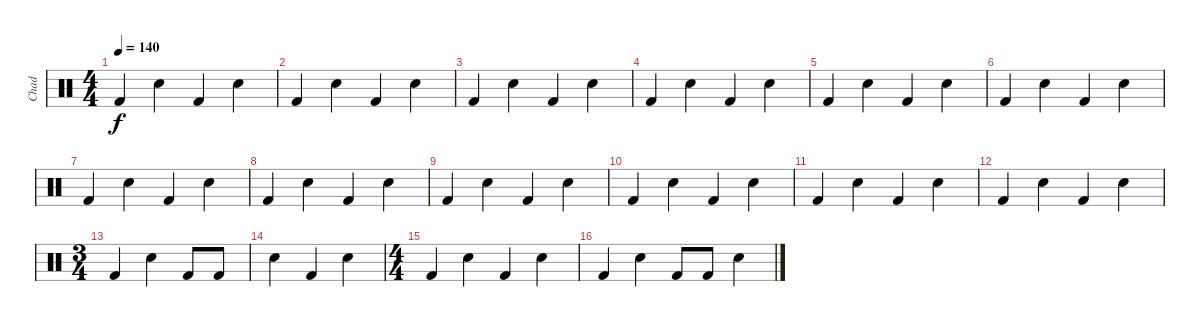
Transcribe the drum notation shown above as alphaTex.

\track ("Chad" "Chad") {instrument percussion}
\staff {score}
\articulation defaults
\ts (4 4)
\tempo 140
\clef neutral
\ks c "Kick (hit) 2".4{dy f} "Electric Snare (hit)".4 "Kick (hit) 2".4 "Electric Snare (hit)".4
|
"Kick (hit) 2".4 "Electric Snare (hit)".4 "Kick (hit) 2".4 "Electric Snare (hit)".4 |
"Kick (hit) 2".4 "Electric Snare (hit)".4 "Kick (hit) 2".4 "Electric Snare (hit)".4 |
"Kick (hit) 2".4 "Electric Snare (hit)".4 "Kick (hit) 2".4 "Electric Snare (hit)".4 |
"Kick (hit) 2".4 "Electric Snare (hit)".4 "Kick (hit) 2".4 "Electric Snare (hit)".4 |
"Kick (hit) 2".4 "Electric Snare (hit)".4 "Kick (hit) 2".4 "Electric Snare (hit)".4 |
"Kick (hit) 2".4 "Electric Snare (hit)".4 "Kick (hit) 2".4 "Electric Snare (hit)".4 |
"Kick (hit) 2".4 "Electric Snare (hit)".4 "Kick (hit) 2".4 "Electric Snare (hit)".4 |
"Kick (hit) 2".4 "Electric Snare (hit)".4 "Kick (hit) 2".4 "Electric Snare (hit)".4 |
"Kick (hit) 2".4 "Electric Snare (hit)".4 "Kick (hit) 2".4 "Electric Snare (hit)".4 |
"Kick (hit) 2".4 "Electric Snare (hit)".4 "Kick (hit) 2".4 "Electric Snare (hit)".4 |
"Kick (hit) 2".4 "Electric Snare (hit)".4 "Kick (hit) 2".4 "Electric Snare (hit)".4 |
\ts (3 4)
"Kick (hit) 2".4 "Electric Snare (hit)".4 "Kick (hit) 2".8 "Kick (hit) 2".8 |
"Electric Snare (hit)".4 "Kick (hit) 2".4 "Electric Snare (hit)".4 |
\ts (4 4)
"Kick (hit) 2".4 "Electric Snare (hit)".4 "Kick (hit) 2".4 "Electric Snare (hit)".4 |
"Kick (hit) 2".4 "Electric Snare (hit)".4 "Kick (hit) 2".8 "Kick (hit) 2".8 "Electric Snare (hit)".4
